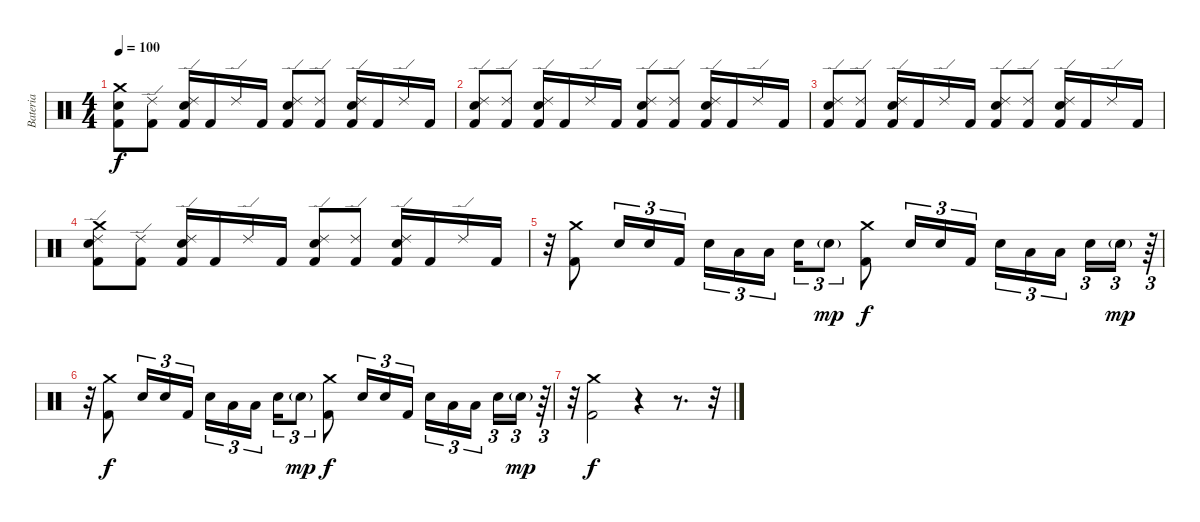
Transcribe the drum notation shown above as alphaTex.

\track ("Bateria" "Bateria") {instrument percussion}
\staff {score}
\articulation defaults
\ts (4 4)
\tempo 100
\clef neutral
\ks c
("Crash medium (hit)" "Electric Snare (hit)" "Kick (hit) 2").8{dy f} ("Ride (edge) 2" "Kick (hit) 2").8 ("Ride (edge) 2" "Electric Snare (hit)" "Kick (hit) 2").16 "Kick (hit) 2".16 "Ride (edge) 2".16 "Kick (hit) 2".16 ("Ride (edge) 2" "Electric Snare (hit)" "Kick (hit) 2").8 ("Ride (edge) 2" "Kick (hit) 2").8 ("Ride (edge) 2" "Electric Snare (hit)" "Kick (hit) 2").16 "Kick (hit) 2".16 "Ride (edge) 2".16 "Kick (hit) 2".16 |
("Ride (edge) 2" "Electric Snare (hit)" "Kick (hit) 2").8 ("Ride (edge) 2" "Kick (hit) 2").8 ("Ride (edge) 2" "Electric Snare (hit)" "Kick (hit) 2").16 "Kick (hit) 2".16 "Ride (edge) 2".16 "Kick (hit) 2".16 ("Ride (edge) 2" "Electric Snare (hit)" "Kick (hit) 2").8 ("Ride (edge) 2" "Kick (hit) 2").8 ("Ride (edge) 2" "Electric Snare (hit)" "Kick (hit) 2").16 "Kick (hit) 2".16 "Ride (edge) 2".16 "Kick (hit) 2".16 |
("Ride (edge) 2" "Electric Snare (hit)" "Kick (hit) 2").8 ("Ride (edge) 2" "Kick (hit) 2").8 ("Ride (edge) 2" "Electric Snare (hit)" "Kick (hit) 2").16 "Kick (hit) 2".16 "Ride (edge) 2".16 "Kick (hit) 2".16 ("Ride (edge) 2" "Electric Snare (hit)" "Kick (hit) 2").8 ("Ride (edge) 2" "Kick (hit) 2").8 ("Ride (edge) 2" "Electric Snare (hit)" "Kick (hit) 2").16 "Kick (hit) 2".16 "Ride (edge) 2".16 "Kick (hit) 2".16 |
("Crash medium (hit)" "Ride (edge) 2" "Electric Snare (hit)" "Kick (hit) 2").8 ("Ride (edge) 2" "Kick (hit) 2").8 ("Ride (edge) 2" "Electric Snare (hit)" "Kick (hit) 2").16 "Kick (hit) 2".16 "Ride (edge) 2".16 "Kick (hit) 2".16 ("Ride (edge) 2" "Electric Snare (hit)" "Kick (hit) 2").8 ("Ride (edge) 2" "Kick (hit) 2").8 ("Ride (edge) 2" "Electric Snare (hit)" "Kick (hit) 2").16 "Kick (hit) 2".16 "Ride (edge) 2".16 "Kick (hit) 2".16 |
r.32 ("Crash medium (hit)" "Kick (hit) 2").8 "Electric Snare (hit)".16{tu (3 2)} "Electric Snare (hit)".16{tu (3 2)} "Kick (hit) 2".16{tu (3 2)} "Electric Snare (hit)".16{tu (3 2)} "Low Tom (hit)".16{tu (3 2)} "Low Tom (hit)".16{tu (3 2)} "Electric Snare (hit)".16{tu (3 2)} "Electric Snare (hit)"{g}.8{tu (3 2) dy mp} ("Crash medium (hit)" "Kick (hit) 2").8{dy f} "Electric Snare (hit)".16{tu (3 2)} "Electric Snare (hit)".16{tu (3 2)} "Kick (hit) 2".16{tu (3 2)} "Electric Snare (hit)".16{tu (3 2)} "Low Tom (hit)".16{tu (3 2)} "Low Tom (hit)".16{tu (3 2)} "Electric Snare (hit)".16{tu (3 2)} "Electric Snare (hit)"{g}.16{tu (3 2) dy mp} r.64{tu (3 2)} |
r.32 ("Crash medium (hit)" "Kick (hit) 2").8{dy f} "Electric Snare (hit)".16{tu (3 2)} "Electric Snare (hit)".16{tu (3 2)} "Kick (hit) 2".16{tu (3 2)} "Electric Snare (hit)".16{tu (3 2)} "Low Tom (hit)".16{tu (3 2)} "Low Tom (hit)".16{tu (3 2)} "Electric Snare (hit)".16{tu (3 2)} "Electric Snare (hit)"{g}.8{tu (3 2) dy mp} ("Crash medium (hit)" "Kick (hit) 2").8{dy f} "Electric Snare (hit)".16{tu (3 2)} "Electric Snare (hit)".16{tu (3 2)} "Kick (hit) 2".16{tu (3 2)} "Electric Snare (hit)".16{tu (3 2)} "Low Tom (hit)".16{tu (3 2)} "Low Tom (hit)".16{tu (3 2)} "Electric Snare (hit)".16{tu (3 2)} "Electric Snare (hit)"{g}.16{tu (3 2) dy mp} r.64{tu (3 2)} |
r.32 ("Crash medium (hit)" "Kick (hit) 2").2{dy f} r.4 r.8{d} r.32
